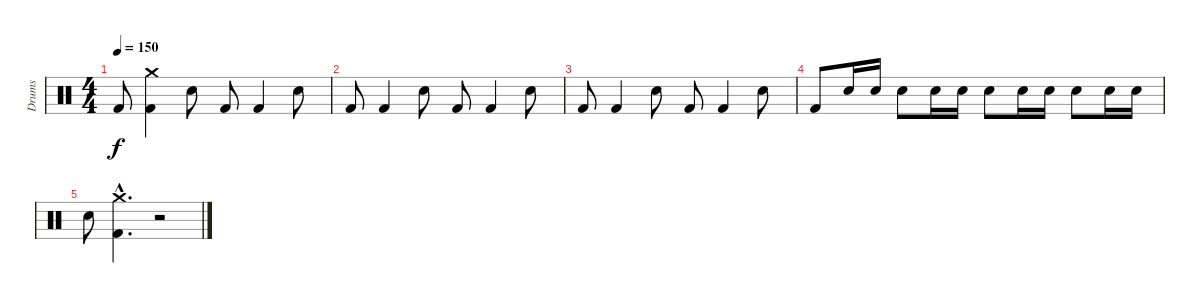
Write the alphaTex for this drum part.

\track ("Drums" "Drums") {instrument percussion}
\staff {score}
\articulation defaults
\ts (4 4)
\tempo 150
\clef neutral
\ks c "Kick (hit) 2".8{dy f}
("Crash medium (hit)" "Kick (hit) 2").4 "Snare (hit) 2".8 "Kick (hit) 2".8 "Kick (hit) 2".4 "Snare (hit) 2".8 |
"Kick (hit) 2".8 "Kick (hit) 2".4 "Snare (hit) 2".8 "Kick (hit) 2".8 "Kick (hit) 2".4 "Snare (hit) 2".8 |
"Kick (hit) 2".8 "Kick (hit) 2".4 "Snare (hit) 2".8 "Kick (hit) 2".8 "Kick (hit) 2".4 "Snare (hit) 2".8 |
"Kick (hit) 2".8 "Snare (hit) 2".16 "Snare (hit) 2".16 "Snare (hit) 2".8 "Snare (hit) 2".16 "Snare (hit) 2".16 "Snare (hit) 2".8 "Snare (hit) 2".16 "Snare (hit) 2".16 "Snare (hit) 2".8 "Snare (hit) 2".16 "Snare (hit) 2".16 |
"Snare (hit) 2".8 ("Crash medium (hit)"{hac} "Kick (hit) 2"{hac}).4{d} r.2
